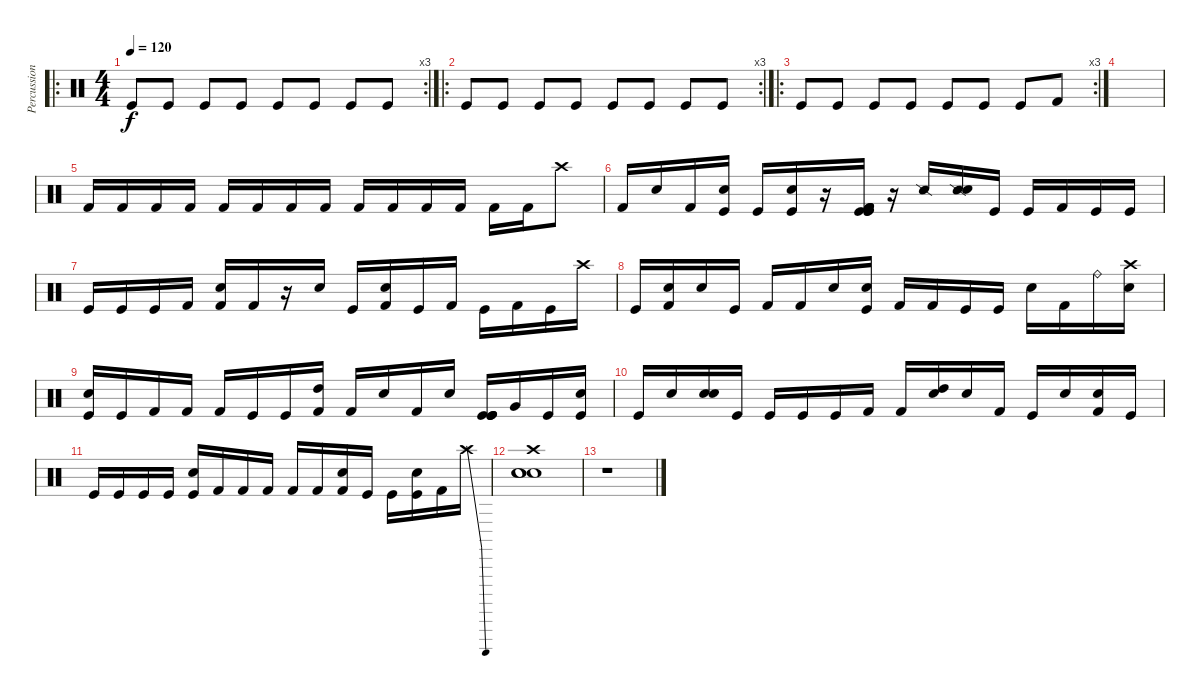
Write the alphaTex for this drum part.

\track ("Percussions" "Percussion") {instrument percussion}
\staff {score}
\articulation defaults
\ro
\rc 3
\ts (4 4)
\tempo 120
\clef neutral
\ks c "Kick (hit)".8{dy f} "Kick (hit)".8 "Kick (hit)".8 "Kick (hit)".8 "Kick (hit)".8 "Kick (hit)".8 "Kick (hit)".8 "Kick (hit)".8
|
\ro
\rc 3 "Kick (hit)".8 "Kick (hit)".8 "Kick (hit)".8 "Kick (hit)".8 "Kick (hit)".8 "Kick (hit)".8 "Kick (hit)".8 "Kick (hit)".8
|
\ro
\rc 3 "Kick (hit)".8 "Kick (hit)".8 "Kick (hit)".8 "Kick (hit)".8 "Kick (hit)".8 "Kick (hit)".8 "Kick (hit)".8 "Kick (hit) 2".8
|
|
"Kick (hit) 2".16 "Kick (hit) 2".16 "Kick (hit) 2".16 "Kick (hit) 2".16 "Kick (hit) 2".16 "Kick (hit) 2".16 "Kick (hit) 2".16 "Kick (hit) 2".16 "Kick (hit) 2".16 "Kick (hit) 2".16 "Kick (hit) 2".16 "Kick (hit) 2".16 "Kick (hit) 2".16 "Kick (hit) 2".16 "Crash high (hit)".8 |
"Kick (hit) 2".16 "Snare (hit) 2".16 "Kick (hit) 2".16 ("Kick (hit)" "Snare (hit) 2").16 "Kick (hit)".16 ("Kick (hit)" "Electric Snare (hit)").16 r.16 ("Kick (hit) 2" "Kick (hit) 2" "Kick (hit)" "Kick (hit)" "Kick (hit)" "Kick (hit) 2").16 r.16 "Snare (side stick) 2".16 ("Snare (side stick) 2" "Electric Snare (hit)").16 "Kick (hit)".16 "Kick (hit)".16 "Kick (hit) 2".16 "Kick (hit)".16 "Kick (hit)".16 |
"Kick (hit)".16 "Kick (hit)".16 "Kick (hit)".16 "Kick (hit) 2".16 ("Kick (hit) 2" "Electric Snare (hit)").16 "Kick (hit) 2".16 r.16 "Snare (hit) 2".16 "Kick (hit)".16 ("Kick (hit) 2" "Electric Snare (hit)").16 "Kick (hit)".16 "Kick (hit) 2".16 "Kick (hit)".16 "Kick (hit) 2".16 "Kick (hit)".16 "Crash high (hit)".16 |
"Kick (hit)".16 ("Kick (hit) 2" "Electric Snare (hit)").16 "Snare (hit) 2".16 "Kick (hit)".16 "Kick (hit) 2".16 "Kick (hit) 2".16 "Snare (hit) 2".16 ("Kick (hit)" "Electric Snare (hit)").16 "Kick (hit) 2".16 "Kick (hit) 2".16 "Kick (hit)".16 "Kick (hit)".16 "Snare (hit) 2".16 "Kick (hit) 2".16 "Ride (bell)".16 ("Crash high (hit)" "Electric Snare (hit)").16 |
("Kick (hit)" "Electric Snare (hit)").16 "Kick (hit)".16 "Kick (hit) 2".16 "Kick (hit) 2".16 "Kick (hit) 2".16 "Kick (hit)".16 "Kick (hit)".16 ("Kick (hit) 2" "High Tom (hit)").16 "Kick (hit) 2".16 "Snare (hit) 2".16 "Kick (hit) 2".16 "Snare (hit) 2".16 ("Kick (hit)" "Kick (hit)" "Kick (hit)" "Kick (hit)").16 "Very Low Tom (hit)".16 "Kick (hit)".16 ("Kick (hit)" "Electric Snare (hit)").16 |
"Kick (hit)".16 "Metronome (bell)".16 ("Metronome (bell)" "Electric Snare (hit)").16 "Kick (hit)".16 "Kick (hit)".16 "Kick (hit)".16 "Kick (hit)".16 "Kick (hit) 2".16 "Kick (hit) 2".16 ("Hand Clap (hit)" "High Tom (hit)").16 "Snare (hit) 2".16 "Kick (hit) 2".16 "Kick (hit)".16 "Snare (hit) 2".16 ("Kick (hit) 2" "Electric Snare (hit)").16 "Kick (hit)".16 |
"Kick (hit)".16 "Kick (hit)".16 "Kick (hit)".16 "Kick (hit)".16 ("Kick (hit)" "Electric Snare (hit)").16 "Kick (hit) 2".16 "Kick (hit) 2".16 "Kick (hit) 2".16 "Kick (hit) 2".16 "Kick (hit) 2".16 ("Kick (hit) 2" "Electric Snare (hit)").16 "Kick (hit)".16 "Kick (hit)".16 ("Kick (hit)" "Electric Snare (hit)").16 "Kick (hit) 2".16 "Crash high (hit)"{be (bend 0 0 60 4)}.16 |
("Electric Snare (hit)" "Electric Snare (hit)" "Crash high (hit)" "Electric Snare (hit)").1 |
r.1
